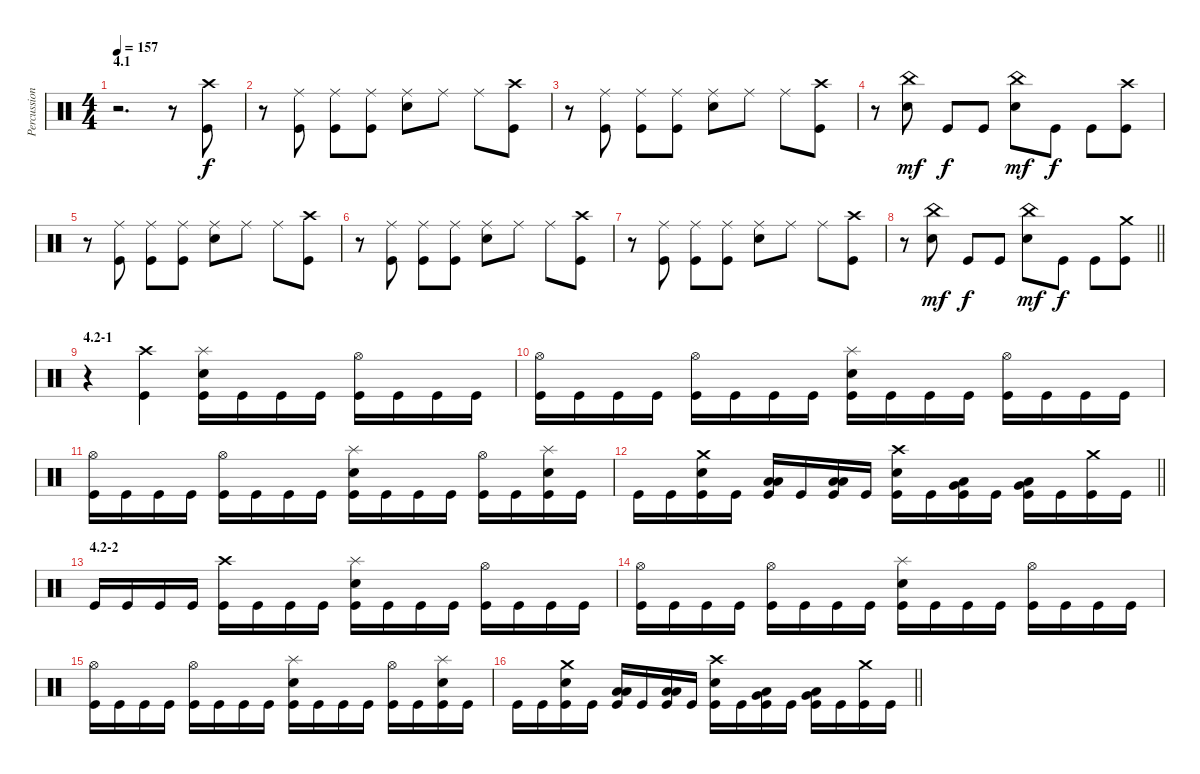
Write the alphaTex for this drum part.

\track ("Percussion" "Percussion") {instrument percussion}
\staff {score}
\articulation defaults
\ts (4 4)
\section ("" "4.1")
\tempo 157
\clef neutral
\ks c
r.2{d dy f} r.8 ("Crash high (hit)" "Kick (hit)").8 |
r.8 ("Ride (middle)" "Kick (hit)").8 ("Ride (middle)" "Kick (hit)").8 ("Ride (middle)" "Kick (hit)").8 ("Ride (middle)" "Snare (hit) 2").8 "Ride (middle)".8 "Ride (middle)".8 ("Crash high (hit)" "Kick (hit)").8 |
r.8 ("Ride (middle)" "Kick (hit)").8 ("Ride (middle)" "Kick (hit)").8 ("Ride (middle)" "Kick (hit)").8 ("Ride (middle)" "Snare (hit) 2").8 "Ride (middle)".8 "Ride (middle)".8 ("Crash high (hit)" "Kick (hit)").8 |
r.8 ("China (hit)" "Snare (hit) 2").8{dy mf} "Kick (hit)".8{dy f} "Kick (hit)".8 ("China (hit)" "Snare (hit) 2").8{dy mf} "Kick (hit)".8{dy f} "Kick (hit)".8 ("Crash high (hit)" "Kick (hit)").8 |
r.8 ("Ride (middle)" "Kick (hit)").8 ("Ride (middle)" "Kick (hit)").8 ("Ride (middle)" "Kick (hit)").8 ("Ride (middle)" "Snare (hit) 2").8 "Ride (middle)".8 "Ride (middle)".8 ("Crash high (hit)" "Kick (hit)").8 |
r.8 ("Ride (middle)" "Kick (hit)").8 ("Ride (middle)" "Kick (hit)").8 ("Ride (middle)" "Kick (hit)").8 ("Ride (middle)" "Snare (hit) 2").8 "Ride (middle)".8 "Ride (middle)".8 ("Crash high (hit)" "Kick (hit)").8 |
r.8 ("Ride (middle)" "Kick (hit)").8 ("Ride (middle)" "Kick (hit)").8 ("Ride (middle)" "Kick (hit)").8 ("Ride (middle)" "Snare (hit) 2").8 "Ride (middle)".8 "Ride (middle)".8 ("Crash high (hit)" "Kick (hit)").8 |
\barLineRight lightlight
r.8 ("China (hit)" "Snare (hit) 2").8{dy mf} "Kick (hit)".8{dy f} "Kick (hit)".8 ("China (hit)" "Snare (hit) 2").8{dy mf} "Kick (hit)".8{dy f} "Kick (hit)".8 ("Crash medium (hit)" "Kick (hit)").8 |
\section ("" "4.2-1")
r.4 ("Crash high (hit)" "Kick (hit)").4 ("Splash (hit)" "Snare (hit) 2" "Kick (hit)").16 "Kick (hit)".16 "Kick (hit)".16 "Kick (hit)".16 ("Hi-Hat (open)" "Kick (hit)").16 "Kick (hit)".16 "Kick (hit)".16 "Kick (hit)".16 |
("Hi-Hat (open)" "Kick (hit)").16 "Kick (hit)".16 "Kick (hit)".16 "Kick (hit)".16 ("Hi-Hat (open)" "Kick (hit)").16 "Kick (hit)".16 "Kick (hit)".16 "Kick (hit)".16 ("Splash (hit)" "Snare (hit) 2" "Kick (hit)").16 "Kick (hit)".16 "Kick (hit)".16 "Kick (hit)".16 ("Hi-Hat (open)" "Kick (hit)").16 "Kick (hit)".16 "Kick (hit)".16 "Kick (hit)".16 |
("Hi-Hat (open)" "Kick (hit)").16 "Kick (hit)".16 "Kick (hit)".16 "Kick (hit)".16 ("Hi-Hat (open)" "Kick (hit)").16 "Kick (hit)".16 "Kick (hit)".16 "Kick (hit)".16 ("Splash (hit)" "Snare (hit) 2" "Kick (hit)").16 "Kick (hit)".16 "Kick (hit)".16 "Kick (hit)".16 ("Hi-Hat (open)" "Kick (hit)").16 "Kick (hit)".16 ("Splash (hit)" "Snare (hit) 2" "Kick (hit)").16 "Kick (hit)".16 |
\barLineRight lightlight "Kick (hit)".16 "Kick (hit)".16
("Crash medium (hit)" "Snare (hit) 2" "Kick (hit)").16 "Kick (hit)".16 ("Low Tom (hit)" "Low Floor Tom (hit)" "Kick (hit)").16 "Kick (hit)".16 ("Low Tom (hit)" "Low Floor Tom (hit)" "Kick (hit)").16 "Kick (hit)".16 ("Crash high (hit)" "Snare (hit) 2" "Kick (hit)").16 "Kick (hit)".16 ("Very Low Tom (hit)" "Low Floor Tom (hit)" "Kick (hit)").16 "Kick (hit)".16 ("Very Low Tom (hit)" "Low Floor Tom (hit)" "Kick (hit)").16 "Kick (hit)".16 ("Crash medium (hit)" "Kick (hit)").16 "Kick (hit)".16 |
\section ("" "4.2-2")
"Kick (hit)".16 "Kick (hit)".16 "Kick (hit)".16 "Kick (hit)".16 ("Crash high (hit)" "Kick (hit)").16 "Kick (hit)".16 "Kick (hit)".16 "Kick (hit)".16 ("Splash (hit)" "Snare (hit) 2" "Kick (hit)").16 "Kick (hit)".16 "Kick (hit)".16 "Kick (hit)".16 ("Hi-Hat (open)" "Kick (hit)").16 "Kick (hit)".16 "Kick (hit)".16 "Kick (hit)".16 |
("Hi-Hat (open)" "Kick (hit)").16 "Kick (hit)".16 "Kick (hit)".16 "Kick (hit)".16 ("Hi-Hat (open)" "Kick (hit)").16 "Kick (hit)".16 "Kick (hit)".16 "Kick (hit)".16 ("Splash (hit)" "Snare (hit) 2" "Kick (hit)").16 "Kick (hit)".16 "Kick (hit)".16 "Kick (hit)".16 ("Hi-Hat (open)" "Kick (hit)").16 "Kick (hit)".16 "Kick (hit)".16 "Kick (hit)".16 |
("Hi-Hat (open)" "Kick (hit)").16 "Kick (hit)".16 "Kick (hit)".16 "Kick (hit)".16 ("Hi-Hat (open)" "Kick (hit)").16 "Kick (hit)".16 "Kick (hit)".16 "Kick (hit)".16 ("Splash (hit)" "Snare (hit) 2" "Kick (hit)").16 "Kick (hit)".16 "Kick (hit)".16 "Kick (hit)".16 ("Hi-Hat (open)" "Kick (hit)").16 "Kick (hit)".16 ("Splash (hit)" "Snare (hit) 2" "Kick (hit)").16 "Kick (hit)".16 |
\barLineRight lightlight "Kick (hit)".16 "Kick (hit)".16
("Crash medium (hit)" "Snare (hit) 2" "Kick (hit)").16 "Kick (hit)".16 ("Low Tom (hit)" "Low Floor Tom (hit)" "Kick (hit)").16 "Kick (hit)".16 ("Low Tom (hit)" "Low Floor Tom (hit)" "Kick (hit)").16 "Kick (hit)".16 ("Crash high (hit)" "Snare (hit) 2" "Kick (hit)").16 "Kick (hit)".16 ("Very Low Tom (hit)" "Low Floor Tom (hit)" "Kick (hit)").16 "Kick (hit)".16 ("Very Low Tom (hit)" "Low Floor Tom (hit)" "Kick (hit)").16 "Kick (hit)".16 ("Crash medium (hit)" "Kick (hit)").16 "Kick (hit)".16
